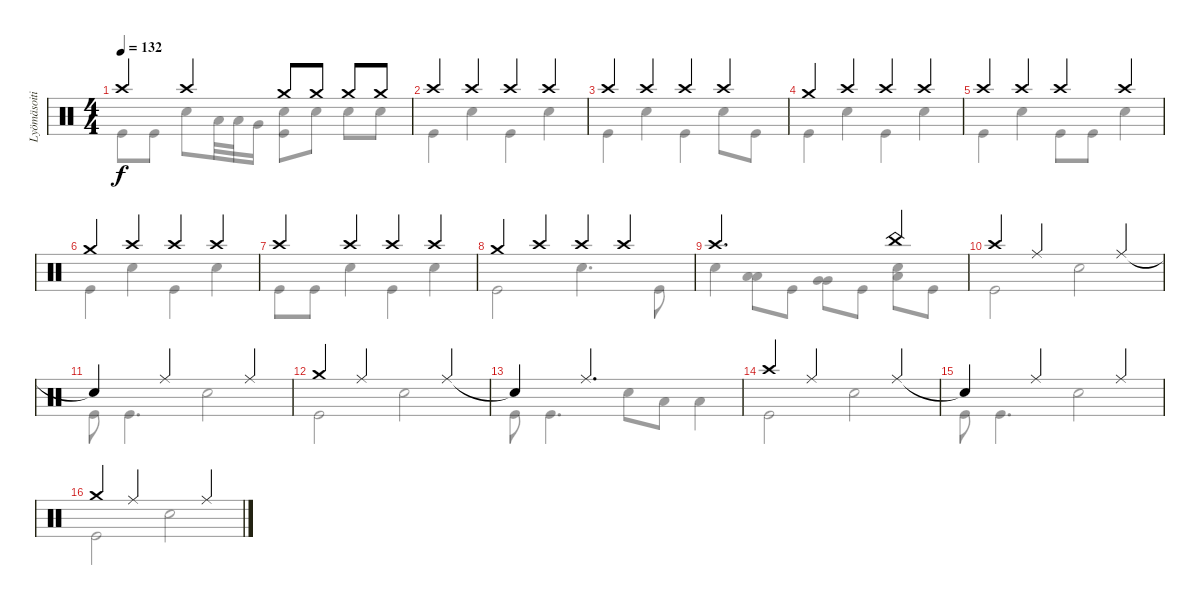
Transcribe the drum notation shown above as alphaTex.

\track ("Lyömäsoitin" "Lyömäsoiti") {instrument percussion}
\staff {score}
\articulation defaults
\voice
\ts (4 4)
\tempo 132
\clef neutral
\ks c "Crash high (hit)".4{dy f} "Crash high (hit)".4 "Crash medium (hit)".8 "Crash medium (hit)".8 "Crash medium (hit)".8 "Crash medium (hit)".8
|
"Crash high (hit)".4 "Crash high (hit)".4 "Crash high (hit)".4 "Crash high (hit)".4 |
"Crash high (hit)".4 "Crash high (hit)".4 "Crash high (hit)".4 "Crash high (hit)".4 |
"Crash medium (hit)".4 "Crash high (hit)".4 "Crash high (hit)".4 "Crash high (hit)".4 |
"Crash high (hit)".4 "Crash high (hit)".4 "Crash high (hit)".4 "Crash high (hit)".4 |
"Crash medium (hit)".4 "Crash high (hit)".4 "Crash high (hit)".4 "Crash high (hit)".4 |
"Crash high (hit)".4 "Crash high (hit)".4 "Crash high (hit)".4 "Crash high (hit)".4 |
"Crash medium (hit)".4 "Crash high (hit)".4 "Crash high (hit)".4 "Crash high (hit)".4 |
"Crash high (hit)".2{d} "China (hit)".4 |
"Crash high (hit)".4 "Ride (middle)".2 "Ride (middle)".4 |
"Snare (hit)"{t}.4 "Ride (middle)".2 "Ride (middle)".4 |
"Crash medium (hit)".4 "Ride (middle)".2 "Ride (middle)".4 |
"Snare (hit)"{t}.4 "Ride (middle)".2{d} |
"Crash high (hit)".4 "Ride (middle)".2 "Ride (middle)".4 |
"Snare (hit)"{t}.4 "Ride (middle)".2 "Ride (middle)".4 |
"Crash medium (hit)".4 "Ride (middle)".2 "Ride (middle)".4
\voice
\clef neutral
\ottava regular
\simile none
\ks c "Kick (hit)".8{dy f} "Kick (hit)".8 "Electric Snare (hit)".8 "Low Tom (hit)".32 "Low Tom (hit)".32 "Very Low Tom (hit)".16
("Electric Snare (hit)" "Kick (hit)").8 "Electric Snare (hit)".8 "Electric Snare (hit)".8 "Electric Snare (hit)".8 |
"Kick (hit)".4 "Electric Snare (hit)".4 "Kick (hit)".4 "Electric Snare (hit)".4 |
"Kick (hit)".4 "Electric Snare (hit)".4 "Kick (hit)".4 "Electric Snare (hit)".8 "Kick (hit)".8 |
"Kick (hit)".4 "Electric Snare (hit)".4 "Kick (hit)".4 "Electric Snare (hit)".4 |
"Kick (hit)".4 "Electric Snare (hit)".4 "Kick (hit)".8 "Kick (hit)".8 "Electric Snare (hit)".4 |
"Kick (hit)".4 "Electric Snare (hit)".4 "Kick (hit)".4 "Electric Snare (hit)".4 |
"Kick (hit)".8 "Kick (hit)".8 "Electric Snare (hit)".4 "Kick (hit)".4 "Electric Snare (hit)".4 |
"Kick (hit)".2 "Electric Snare (hit)".4{d} "Kick (hit)".8 |
"Electric Snare (hit)".4 ("Low Tom (hit)" "Low Tom (hit)").8 "Kick (hit)".8 ("Very Low Tom (hit)" "Very Low Tom (hit)").8 "Kick (hit)".8 ("Low Floor Tom (hit)" "Electric Snare (hit)").8 "Kick (hit)".8 |
"Kick (hit)".2 "Electric Snare (hit)".2 |
"Kick (hit)".8 "Kick (hit)".4{d} "Electric Snare (hit)".2 |
"Kick (hit)".2 "Electric Snare (hit)".2 |
"Kick (hit)".8 "Kick (hit)".4{d} "Electric Snare (hit)".8 "Low Floor Tom (hit)".8 "Low Floor Tom (hit)".4 |
"Kick (hit)".2 "Electric Snare (hit)".2 |
"Kick (hit)".8 "Kick (hit)".4{d} "Electric Snare (hit)".2 |
"Kick (hit)".2 "Electric Snare (hit)".2
